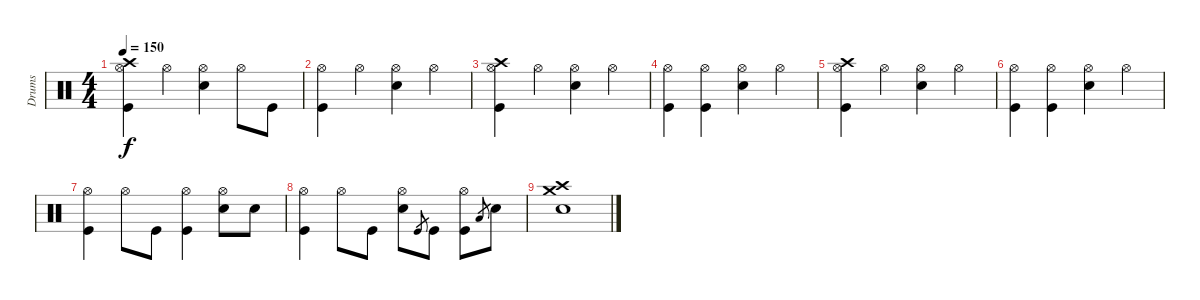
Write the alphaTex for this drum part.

\track ("Drums" "Drums") {instrument percussion}
\staff {score}
\articulation defaults
\ts (4 4)
\tempo 150
\clef neutral
\ks c
("Crash high (hit)" "Hi-Hat (open)" "Kick (hit)").4{dy f} "Hi-Hat (open)".4 ("Hi-Hat (open)" "Electric Snare (hit)").4 "Hi-Hat (open)".8 "Kick (hit)".8 |
("Hi-Hat (open)" "Kick (hit)").4 "Hi-Hat (open)".4 ("Hi-Hat (open)" "Electric Snare (hit)").4 "Hi-Hat (open)".4 |
("Crash high (hit)" "Hi-Hat (open)" "Kick (hit)").4 "Hi-Hat (open)".4 ("Hi-Hat (open)" "Electric Snare (hit)").4 "Hi-Hat (open)".4 |
("Hi-Hat (open)" "Kick (hit)").4 ("Hi-Hat (open)" "Kick (hit)").4 ("Hi-Hat (open)" "Electric Snare (hit)").4 "Hi-Hat (open)".4 |
("Crash high (hit)" "Hi-Hat (open)" "Kick (hit)").4 "Hi-Hat (open)".4 ("Hi-Hat (open)" "Electric Snare (hit)").4 "Hi-Hat (open)".4 |
("Hi-Hat (open)" "Kick (hit)").4 ("Hi-Hat (open)" "Kick (hit)").4 ("Hi-Hat (open)" "Electric Snare (hit)").4 "Hi-Hat (open)".4 |
("Hi-Hat (open)" "Kick (hit)").4 "Hi-Hat (open)".8 "Kick (hit)".8 ("Hi-Hat (open)" "Kick (hit)").4 ("Hi-Hat (open)" "Electric Snare (hit)").8 "Electric Snare (hit)".8 |
("Hi-Hat (open)" "Kick (hit)").4 "Hi-Hat (open)".8 "Kick (hit)".8 ("Hi-Hat (open)" "Electric Snare (hit)").8 "Kick (hit)".8{gr} "Kick (hit)".8 ("Hi-Hat (open)" "Kick (hit)").8 "Low Tom (hit)".8{gr} "Electric Snare (hit)".8 |
("Crash high (hit)" "Crash medium (hit)" "Snare (hit) 2").1
